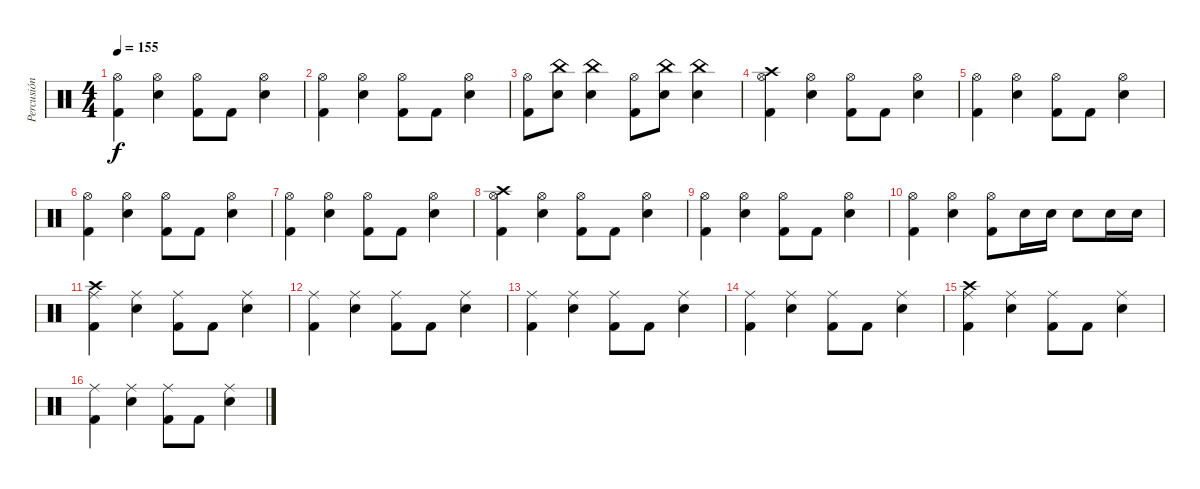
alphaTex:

\track ("Percusión" "Percusión") {instrument percussion}
\staff {score}
\articulation defaults
\ts (4 4)
\tempo 155
\clef neutral
\ks c
("Hi-Hat (open)" "Kick (hit) 2").4{dy f} ("Hi-Hat (open)" "Snare (hit) 2").4 ("Hi-Hat (open)" "Kick (hit) 2").8 "Kick (hit) 2".8 ("Hi-Hat (open)" "Snare (hit) 2").4 |
("Hi-Hat (open)" "Kick (hit) 2").4 ("Hi-Hat (open)" "Snare (hit) 2").4 ("Hi-Hat (open)" "Kick (hit) 2").8 "Kick (hit) 2".8 ("Hi-Hat (open)" "Snare (hit) 2").4 |
("Hi-Hat (open)" "Kick (hit) 2").8 ("China (hit)" "Snare (hit) 2").8 ("China (hit)" "Snare (hit) 2").4 ("Hi-Hat (open)" "Kick (hit) 2").8 ("China (hit)" "Snare (hit) 2").8 ("China (hit)" "Snare (hit) 2").4 |
("Crash high (hit)" "Hi-Hat (open)" "Kick (hit) 2").4 ("Hi-Hat (open)" "Snare (hit) 2").4 ("Hi-Hat (open)" "Kick (hit) 2").8 "Kick (hit) 2".8 ("Hi-Hat (open)" "Snare (hit) 2").4 |
("Hi-Hat (open)" "Kick (hit) 2").4 ("Hi-Hat (open)" "Snare (hit) 2").4 ("Hi-Hat (open)" "Kick (hit) 2").8 "Kick (hit) 2".8 ("Hi-Hat (open)" "Snare (hit) 2").4 |
("Hi-Hat (open)" "Kick (hit) 2").4 ("Hi-Hat (open)" "Snare (hit) 2").4 ("Hi-Hat (open)" "Kick (hit) 2").8 "Kick (hit) 2".8 ("Hi-Hat (open)" "Snare (hit) 2").4 |
("Hi-Hat (open)" "Kick (hit) 2").4 ("Hi-Hat (open)" "Snare (hit) 2").4 ("Hi-Hat (open)" "Kick (hit) 2").8 "Kick (hit) 2".8 ("Hi-Hat (open)" "Snare (hit) 2").4 |
("Crash high (hit)" "Hi-Hat (open)" "Kick (hit) 2").4 ("Hi-Hat (open)" "Snare (hit) 2").4 ("Hi-Hat (open)" "Kick (hit) 2").8 "Kick (hit) 2".8 ("Hi-Hat (open)" "Snare (hit) 2").4 |
("Hi-Hat (open)" "Kick (hit) 2").4 ("Hi-Hat (open)" "Snare (hit) 2").4 ("Hi-Hat (open)" "Kick (hit) 2").8 "Kick (hit) 2".8 ("Hi-Hat (open)" "Snare (hit) 2").4 |
("Hi-Hat (open)" "Kick (hit) 2").4 ("Hi-Hat (open)" "Snare (hit) 2").4 ("Hi-Hat (open)" "Kick (hit) 2").8 "Snare (hit) 2".16 "Snare (hit) 2".16 "Snare (hit) 2".8 "Snare (hit) 2".16 "Snare (hit) 2".16 |
("Crash high (hit)" "Ride (middle)" "Kick (hit) 2").4 ("Ride (middle)" "Snare (hit) 2").4 ("Ride (middle)" "Kick (hit) 2").8 "Kick (hit) 2".8 ("Ride (middle)" "Snare (hit) 2").4 |
("Ride (middle)" "Kick (hit) 2").4 ("Ride (middle)" "Snare (hit) 2").4 ("Ride (middle)" "Kick (hit) 2").8 "Kick (hit) 2".8 ("Ride (middle)" "Snare (hit) 2").4 |
("Ride (middle)" "Kick (hit) 2").4 ("Ride (middle)" "Snare (hit) 2").4 ("Ride (middle)" "Kick (hit) 2").8 "Kick (hit) 2".8 ("Ride (middle)" "Snare (hit) 2").4 |
("Ride (middle)" "Kick (hit) 2").4 ("Ride (middle)" "Snare (hit) 2").4 ("Ride (middle)" "Kick (hit) 2").8 "Kick (hit) 2".8 ("Ride (middle)" "Snare (hit) 2").4 |
("Crash high (hit)" "Ride (middle)" "Kick (hit) 2").4 ("Ride (middle)" "Snare (hit) 2").4 ("Ride (middle)" "Kick (hit) 2").8 "Kick (hit) 2".8 ("Ride (middle)" "Snare (hit) 2").4 |
("Ride (middle)" "Kick (hit) 2").4 ("Ride (middle)" "Snare (hit) 2").4 ("Ride (middle)" "Kick (hit) 2").8 "Kick (hit) 2".8 ("Ride (middle)" "Snare (hit) 2").4
